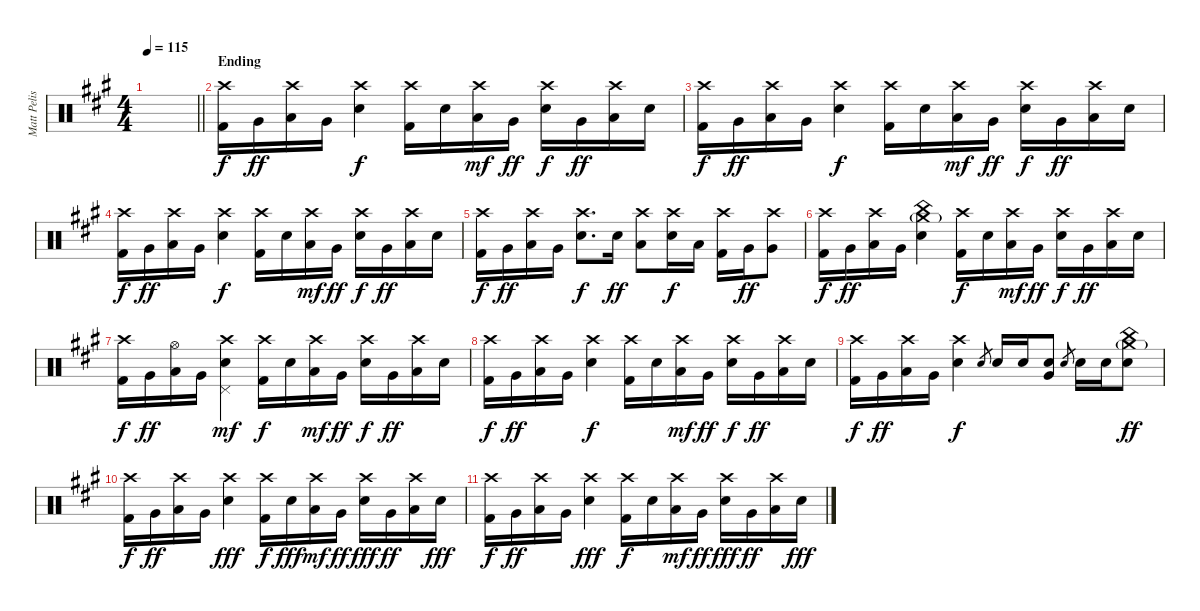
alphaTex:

\track ("Matt Pelissier" "Matt Pelis") {instrument percussion}
\staff {score}
\articulation defaults
\ts (4 4)
\tempo 115
\clef neutral
\barLineRight lightlight
\ks a
|
\section ("" "Ending")
("Crash high (hit)" "Kick (hit) 2").16{dy f} "Very Low Tom (hit)".16{dy ff} ("Crash high (hit)" "Low Floor Tom (hit)").16 "Very Low Tom (hit)".16 ("Crash high (hit)" "Snare (hit) 2").4{dy f} ("Crash high (hit)" "Kick (hit) 2").16 "Snare (hit) 2".16 ("Crash high (hit)" "Low Tom (hit)").16{dy mf} "Very Low Tom (hit)".16{dy ff} ("Crash high (hit)" "Snare (hit) 2").16{dy f} "Very Low Tom (hit)".16{dy ff} ("Crash high (hit)" "Low Floor Tom (hit)").16 "Snare (hit) 2".16 |
("Crash high (hit)" "Kick (hit) 2").16{dy f} "Very Low Tom (hit)".16{dy ff} ("Crash high (hit)" "Low Floor Tom (hit)").16 "Very Low Tom (hit)".16 ("Crash high (hit)" "Snare (hit) 2").4{dy f} ("Crash high (hit)" "Kick (hit) 2").16 "Snare (hit) 2".16 ("Crash high (hit)" "Low Tom (hit)").16{dy mf} "Very Low Tom (hit)".16{dy ff} ("Crash high (hit)" "Snare (hit) 2").16{dy f} "Very Low Tom (hit)".16{dy ff} ("Crash high (hit)" "Low Floor Tom (hit)").16 "Snare (hit) 2".16 |
("Crash high (hit)" "Kick (hit) 2").16{dy f} "Very Low Tom (hit)".16{dy ff} ("Crash high (hit)" "Low Floor Tom (hit)").16 "Very Low Tom (hit)".16 ("Crash high (hit)" "Snare (hit) 2").4{dy f} ("Crash high (hit)" "Kick (hit) 2").16 "Snare (hit) 2".16 ("Crash high (hit)" "Low Tom (hit)").16{dy mf} "Very Low Tom (hit)".16{dy ff} ("Crash high (hit)" "Snare (hit) 2").16{dy f} "Very Low Tom (hit)".16{dy ff} ("Crash high (hit)" "Low Floor Tom (hit)").16 "Snare (hit) 2".16 |
("Crash high (hit)" "Kick (hit) 2").16{dy f} "Very Low Tom (hit)".16{dy ff} ("Crash high (hit)" "Low Floor Tom (hit)").16 "Very Low Tom (hit)".16 ("Crash high (hit)" "Snare (hit) 2").8{d dy f} "Snare (hit) 2".16{dy ff} ("Crash high (hit)" "Low Tom (hit)").8 ("Crash high (hit)" "Snare (hit) 2").16{dy f} "Low Tom (hit)".16 ("Crash high (hit)" "Kick (hit) 2").16 "Very Low Tom (hit)".16{dy ff} ("Crash high (hit)" "Very Low Tom (hit)").8 |
("Crash high (hit)" "Kick (hit) 2").16{dy f} "Very Low Tom (hit)".16{dy ff} ("Crash high (hit)" "Low Floor Tom (hit)").16 "Very Low Tom (hit)".16 ("Crash medium (hit)"{g} "China (hit)" "Snare (hit) 2").4 ("Crash high (hit)" "Kick (hit) 2").16{dy f} "Snare (hit) 2".16 ("Crash high (hit)" "Low Tom (hit)").16{dy mf} "Very Low Tom (hit)".16{dy ff} ("Crash high (hit)" "Snare (hit) 2").16{dy f} "Very Low Tom (hit)".16{dy ff} ("Crash high (hit)" "Low Floor Tom (hit)").16 "Snare (hit) 2".16 |
("Crash high (hit)" "Kick (hit) 2").16{dy f} "Very Low Tom (hit)".16{dy ff} ("Hi-Hat (open)" "Low Floor Tom (hit)").16 "Very Low Tom (hit)".16 ("Crash high (hit)" "Snare (hit) 2" "Pedal Hi-Hat (hit)").4{dy mf} ("Crash high (hit)" "Kick (hit) 2").16{dy f} "Snare (hit) 2".16 ("Crash high (hit)" "Low Tom (hit)").16{dy mf} "Very Low Tom (hit)".16{dy ff} ("Crash high (hit)" "Snare (hit) 2").16{dy f} "Very Low Tom (hit)".16{dy ff} ("Crash high (hit)" "Low Floor Tom (hit)").16 "Snare (hit) 2".16 |
("Crash high (hit)" "Kick (hit) 2").16{dy f} "Very Low Tom (hit)".16{dy ff} ("Crash high (hit)" "Low Floor Tom (hit)").16 "Very Low Tom (hit)".16 ("Crash high (hit)" "Snare (hit) 2").4{dy f} ("Crash high (hit)" "Kick (hit) 2").16 "Snare (hit) 2".16 ("Crash high (hit)" "Low Tom (hit)").16{dy mf} "Very Low Tom (hit)".16{dy ff} ("Crash high (hit)" "Snare (hit) 2").16{dy f} "Very Low Tom (hit)".16{dy ff} ("Crash high (hit)" "Low Floor Tom (hit)").16 "Snare (hit) 2".16 |
("Crash high (hit)" "Kick (hit) 2").16{dy f} "Very Low Tom (hit)".16{dy ff} ("Crash high (hit)" "Low Floor Tom (hit)").16 "Very Low Tom (hit)".16 ("Crash high (hit)" "Snare (hit) 2").4{dy f} "Snare (hit) 2".8{gr} "Snare (hit) 2".16 "Snare (hit) 2".16 ("Snare (hit) 2" "Very Low Tom (hit)").8 "Snare (hit) 2".8{gr} "Snare (hit) 2".16 "Snare (hit) 2".16 ("Crash medium (hit)"{g} "China (hit)" "Snare (hit) 2").8{dy ff} |
("Crash high (hit)" "Kick (hit) 2").16{dy f} "Very Low Tom (hit)".16{dy ff} ("Crash high (hit)" "Low Floor Tom (hit)").16 "Very Low Tom (hit)".16 ("Crash high (hit)" "Snare (hit) 2").4{dy fff} ("Crash high (hit)" "Kick (hit) 2").16{dy f} "Snare (hit) 2".16{dy fff} ("Crash high (hit)" "Low Tom (hit)").16{dy mf} "Very Low Tom (hit)".16{dy ff} ("Crash high (hit)" "Snare (hit) 2").16{dy fff} "Very Low Tom (hit)".16{dy ff} ("Crash high (hit)" "Low Floor Tom (hit)").16 "Snare (hit) 2".16{dy fff} |
("Crash high (hit)" "Kick (hit) 2").16{dy f} "Very Low Tom (hit)".16{dy ff} ("Crash high (hit)" "Low Floor Tom (hit)").16 "Very Low Tom (hit)".16 ("Crash high (hit)" "Snare (hit) 2").4{dy fff} ("Crash high (hit)" "Kick (hit) 2").16{dy f} "Snare (hit) 2".16 ("Crash high (hit)" "Low Tom (hit)").16{dy mf} "Very Low Tom (hit)".16{dy ff} ("Crash high (hit)" "Snare (hit) 2").16{dy fff} "Very Low Tom (hit)".16{dy ff} ("Crash high (hit)" "Low Floor Tom (hit)").16 "Snare (hit) 2".16{dy fff}
